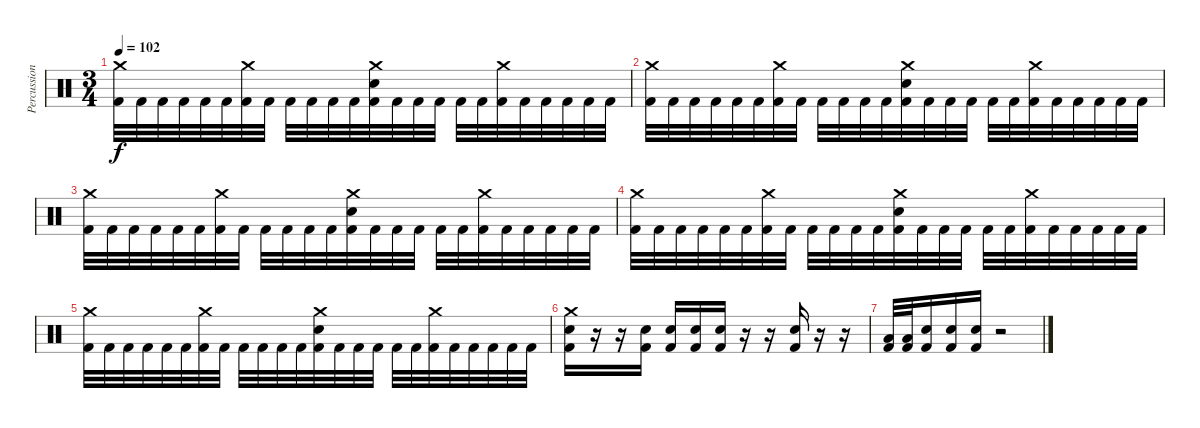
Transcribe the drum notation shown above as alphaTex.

\track ("Percussion" "Percussion") {instrument percussion}
\staff {score}
\articulation defaults
\ts (3 4)
\tempo 102
\clef neutral
\ks c
("Crash medium (hit)" "Kick (hit) 2").32{dy f} "Kick (hit) 2".32 "Kick (hit) 2".32 "Kick (hit) 2".32 "Kick (hit) 2".32 "Kick (hit) 2".32 ("Crash medium (hit)" "Kick (hit) 2").32 "Kick (hit) 2".32 "Kick (hit) 2".32 "Kick (hit) 2".32 "Kick (hit) 2".32 "Kick (hit) 2".32 ("Crash medium (hit)" "Electric Snare (hit)" "Kick (hit) 2").32 "Kick (hit) 2".32 "Kick (hit) 2".32 "Kick (hit) 2".32 "Kick (hit) 2".32 "Kick (hit) 2".32 ("Crash medium (hit)" "Kick (hit) 2").32 "Kick (hit) 2".32 "Kick (hit) 2".32 "Kick (hit) 2".32 "Kick (hit) 2".32 "Kick (hit) 2".32 |
("Crash medium (hit)" "Kick (hit) 2").32 "Kick (hit) 2".32 "Kick (hit) 2".32 "Kick (hit) 2".32 "Kick (hit) 2".32 "Kick (hit) 2".32 ("Crash medium (hit)" "Kick (hit) 2").32 "Kick (hit) 2".32 "Kick (hit) 2".32 "Kick (hit) 2".32 "Kick (hit) 2".32 "Kick (hit) 2".32 ("Crash medium (hit)" "Electric Snare (hit)" "Kick (hit) 2").32 "Kick (hit) 2".32 "Kick (hit) 2".32 "Kick (hit) 2".32 "Kick (hit) 2".32 "Kick (hit) 2".32 ("Crash medium (hit)" "Kick (hit) 2").32 "Kick (hit) 2".32 "Kick (hit) 2".32 "Kick (hit) 2".32 "Kick (hit) 2".32 "Kick (hit) 2".32 |
("Crash medium (hit)" "Kick (hit) 2").32 "Kick (hit) 2".32 "Kick (hit) 2".32 "Kick (hit) 2".32 "Kick (hit) 2".32 "Kick (hit) 2".32 ("Crash medium (hit)" "Kick (hit) 2").32 "Kick (hit) 2".32 "Kick (hit) 2".32 "Kick (hit) 2".32 "Kick (hit) 2".32 "Kick (hit) 2".32 ("Crash medium (hit)" "Electric Snare (hit)" "Kick (hit) 2").32 "Kick (hit) 2".32 "Kick (hit) 2".32 "Kick (hit) 2".32 "Kick (hit) 2".32 "Kick (hit) 2".32 ("Crash medium (hit)" "Kick (hit) 2").32 "Kick (hit) 2".32 "Kick (hit) 2".32 "Kick (hit) 2".32 "Kick (hit) 2".32 "Kick (hit) 2".32 |
("Crash medium (hit)" "Kick (hit) 2").32 "Kick (hit) 2".32 "Kick (hit) 2".32 "Kick (hit) 2".32 "Kick (hit) 2".32 "Kick (hit) 2".32 ("Crash medium (hit)" "Kick (hit) 2").32 "Kick (hit) 2".32 "Kick (hit) 2".32 "Kick (hit) 2".32 "Kick (hit) 2".32 "Kick (hit) 2".32 ("Crash medium (hit)" "Electric Snare (hit)" "Kick (hit) 2").32 "Kick (hit) 2".32 "Kick (hit) 2".32 "Kick (hit) 2".32 "Kick (hit) 2".32 "Kick (hit) 2".32 ("Crash medium (hit)" "Kick (hit) 2").32 "Kick (hit) 2".32 "Kick (hit) 2".32 "Kick (hit) 2".32 "Kick (hit) 2".32 "Kick (hit) 2".32 |
("Crash medium (hit)" "Kick (hit) 2").32 "Kick (hit) 2".32 "Kick (hit) 2".32 "Kick (hit) 2".32 "Kick (hit) 2".32 "Kick (hit) 2".32 ("Crash medium (hit)" "Kick (hit) 2").32 "Kick (hit) 2".32 "Kick (hit) 2".32 "Kick (hit) 2".32 "Kick (hit) 2".32 "Kick (hit) 2".32 ("Crash medium (hit)" "Electric Snare (hit)" "Kick (hit) 2").32 "Kick (hit) 2".32 "Kick (hit) 2".32 "Kick (hit) 2".32 "Kick (hit) 2".32 "Kick (hit) 2".32 ("Crash medium (hit)" "Kick (hit) 2").32 "Kick (hit) 2".32 "Kick (hit) 2".32 "Kick (hit) 2".32 "Kick (hit) 2".32 "Kick (hit) 2".32 |
("Crash medium (hit)" "Electric Snare (hit)" "Kick (hit) 2").16 r.16 r.16 ("Electric Snare (hit)" "Kick (hit) 2").16 ("Electric Snare (hit)" "Kick (hit) 2").16 ("Electric Snare (hit)" "Kick (hit) 2").16 ("Electric Snare (hit)" "Kick (hit) 2").16 r.16 r.16 ("Electric Snare (hit)" "Kick (hit) 2").16 r.16 r.16 |
("Low Tom (hit)" "Kick (hit) 2").32 ("Low Tom (hit)" "Kick (hit) 2").32 ("Electric Snare (hit)" "Kick (hit) 2").16 ("Electric Snare (hit)" "Kick (hit) 2").16 ("Electric Snare (hit)" "Kick (hit) 2").16 r.2
